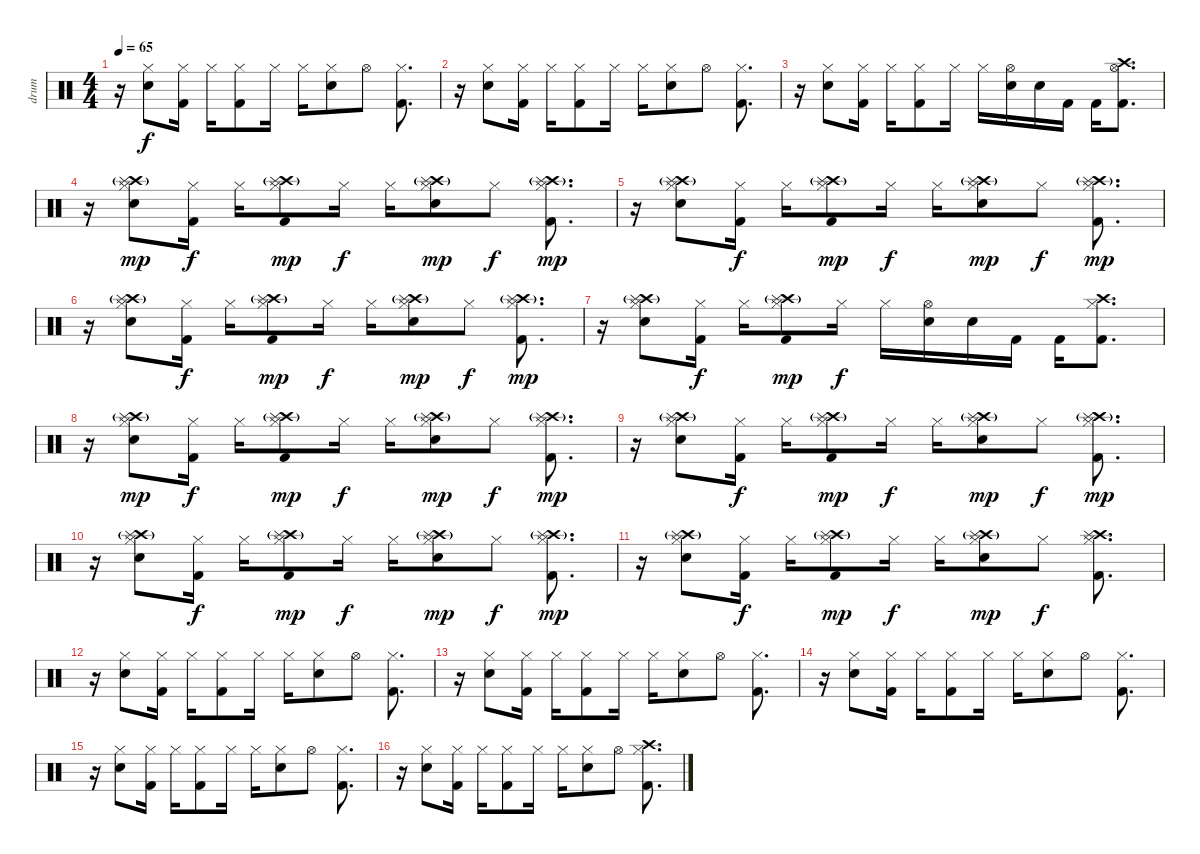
\track ("drum" "drum") {instrument percussion}
\staff {score}
\articulation defaults
\ts (4 4)
\tempo 65
\clef neutral
\ks c
r.16{dy f} ("Hi-Hat (closed)" "Electric Snare (hit)").8 ("Hi-Hat (closed)" "Kick (hit) 2").16 "Hi-Hat (closed)".16 ("Hi-Hat (closed)" "Kick (hit) 2").8 "Hi-Hat (closed)".16 "Hi-Hat (closed)".16 ("Hi-Hat (closed)" "Electric Snare (hit)").8 "Hi-Hat (open)".8 ("Hi-Hat (closed)" "Kick (hit) 2").8{d} |
r.16 ("Hi-Hat (closed)" "Electric Snare (hit)").8 ("Hi-Hat (closed)" "Kick (hit) 2").16 "Hi-Hat (closed)".16 ("Hi-Hat (closed)" "Kick (hit) 2").8 "Hi-Hat (closed)".16 "Hi-Hat (closed)".16 ("Hi-Hat (closed)" "Electric Snare (hit)").8 "Hi-Hat (open)".8 ("Hi-Hat (closed)" "Kick (hit) 2").8{d} |
r.16 ("Hi-Hat (closed)" "Electric Snare (hit)").8 ("Hi-Hat (closed)" "Kick (hit) 2").16 "Hi-Hat (closed)".16 ("Hi-Hat (closed)" "Kick (hit) 2").8 "Hi-Hat (closed)".16 "Hi-Hat (closed)".16 ("Hi-Hat (open)" "Electric Snare (hit)").16 "Electric Snare (hit)".16 "Kick (hit) 2".16 "Kick (hit) 2".16 ("Crash high (hit)" "Hi-Hat (open)" "Kick (hit) 2").8{d} |
r.16 ("Crash high (hit)"{g} "Hi-Hat (closed)" "Splash (hit)" "Electric Snare (hit)").8{dy mp} ("Hi-Hat (closed)" "Kick (hit) 2").16{dy f} "Hi-Hat (closed)".16 ("Crash high (hit)"{g} "Hi-Hat (closed)" "Splash (hit)" "Kick (hit) 2").8{dy mp} "Hi-Hat (closed)".16{dy f} "Hi-Hat (closed)".16 ("Crash high (hit)"{g} "Hi-Hat (closed)" "Splash (hit)" "Electric Snare (hit)").8{dy mp} "Hi-Hat (closed)".8{dy f} ("Crash high (hit)"{g} "Hi-Hat (closed)" "Splash (hit)" "Kick (hit) 2").8{d dy mp} |
r.16 ("Crash high (hit)"{g} "Hi-Hat (closed)" "Splash (hit)" "Electric Snare (hit)").8 ("Hi-Hat (closed)" "Kick (hit) 2").16{dy f} "Hi-Hat (closed)".16 ("Crash high (hit)"{g} "Hi-Hat (closed)" "Splash (hit)" "Kick (hit) 2").8{dy mp} "Hi-Hat (closed)".16{dy f} "Hi-Hat (closed)".16 ("Crash high (hit)"{g} "Hi-Hat (closed)" "Splash (hit)" "Electric Snare (hit)").8{dy mp} "Hi-Hat (closed)".8{dy f} ("Crash high (hit)"{g} "Hi-Hat (closed)" "Splash (hit)" "Kick (hit) 2").8{d dy mp} |
r.16 ("Crash high (hit)"{g} "Hi-Hat (closed)" "Splash (hit)" "Electric Snare (hit)").8 ("Hi-Hat (closed)" "Kick (hit) 2").16{dy f} "Hi-Hat (closed)".16 ("Crash high (hit)"{g} "Hi-Hat (closed)" "Splash (hit)" "Kick (hit) 2").8{dy mp} "Hi-Hat (closed)".16{dy f} "Hi-Hat (closed)".16 ("Crash high (hit)"{g} "Hi-Hat (closed)" "Splash (hit)" "Electric Snare (hit)").8{dy mp} "Hi-Hat (closed)".8{dy f} ("Crash high (hit)"{g} "Hi-Hat (closed)" "Splash (hit)" "Kick (hit) 2").8{d dy mp} |
r.16 ("Crash high (hit)"{g} "Hi-Hat (closed)" "Splash (hit)" "Electric Snare (hit)").8 ("Hi-Hat (closed)" "Kick (hit) 2").16{dy f} "Hi-Hat (closed)".16 ("Crash high (hit)"{g} "Hi-Hat (closed)" "Splash (hit)" "Kick (hit) 2").8{dy mp} "Hi-Hat (closed)".16{dy f} "Hi-Hat (closed)".16 ("Hi-Hat (open)" "Electric Snare (hit)").16 "Electric Snare (hit)".16 "Kick (hit) 2".16 "Kick (hit) 2".16 ("Crash high (hit)" "Hi-Hat (closed)" "Kick (hit) 2").8{d} |
r.16 ("Crash high (hit)"{g} "Hi-Hat (closed)" "Splash (hit)" "Electric Snare (hit)").8{dy mp} ("Hi-Hat (closed)" "Kick (hit) 2").16{dy f} "Hi-Hat (closed)".16 ("Crash high (hit)"{g} "Hi-Hat (closed)" "Splash (hit)" "Kick (hit) 2").8{dy mp} "Hi-Hat (closed)".16{dy f} "Hi-Hat (closed)".16 ("Crash high (hit)"{g} "Hi-Hat (closed)" "Splash (hit)" "Electric Snare (hit)").8{dy mp} "Hi-Hat (closed)".8{dy f} ("Crash high (hit)"{g} "Hi-Hat (closed)" "Splash (hit)" "Kick (hit) 2").8{d dy mp} |
r.16 ("Crash high (hit)"{g} "Hi-Hat (closed)" "Splash (hit)" "Electric Snare (hit)").8 ("Hi-Hat (closed)" "Kick (hit) 2").16{dy f} "Hi-Hat (closed)".16 ("Crash high (hit)"{g} "Hi-Hat (closed)" "Splash (hit)" "Kick (hit) 2").8{dy mp} "Hi-Hat (closed)".16{dy f} "Hi-Hat (closed)".16 ("Crash high (hit)"{g} "Hi-Hat (closed)" "Splash (hit)" "Electric Snare (hit)").8{dy mp} "Hi-Hat (closed)".8{dy f} ("Crash high (hit)"{g} "Hi-Hat (closed)" "Splash (hit)" "Kick (hit) 2").8{d dy mp} |
r.16 ("Crash high (hit)"{g} "Hi-Hat (closed)" "Splash (hit)" "Electric Snare (hit)").8 ("Hi-Hat (closed)" "Kick (hit) 2").16{dy f} "Hi-Hat (closed)".16 ("Crash high (hit)"{g} "Hi-Hat (closed)" "Splash (hit)" "Kick (hit) 2").8{dy mp} "Hi-Hat (closed)".16{dy f} "Hi-Hat (closed)".16 ("Crash high (hit)"{g} "Hi-Hat (closed)" "Splash (hit)" "Electric Snare (hit)").8{dy mp} "Hi-Hat (closed)".8{dy f} ("Crash high (hit)"{g} "Hi-Hat (closed)" "Splash (hit)" "Kick (hit) 2").8{d dy mp} |
r.16 ("Crash high (hit)"{g} "Hi-Hat (closed)" "Splash (hit)" "Electric Snare (hit)").8 ("Hi-Hat (closed)" "Kick (hit) 2").16{dy f} "Hi-Hat (closed)".16 ("Crash high (hit)"{g} "Hi-Hat (closed)" "Splash (hit)" "Kick (hit) 2").8{dy mp} "Hi-Hat (closed)".16{dy f} "Hi-Hat (closed)".16 ("Crash high (hit)"{g} "Hi-Hat (closed)" "Splash (hit)" "Electric Snare (hit)").8{dy mp} "Hi-Hat (closed)".8{dy f} ("Crash high (hit)" "Hi-Hat (closed)" "Splash (hit)" "Kick (hit) 2").8{d} |
r.16 ("Hi-Hat (closed)" "Electric Snare (hit)").8 ("Hi-Hat (closed)" "Kick (hit) 2").16 "Hi-Hat (closed)".16 ("Hi-Hat (closed)" "Kick (hit) 2").8 "Hi-Hat (closed)".16 "Hi-Hat (closed)".16 ("Hi-Hat (closed)" "Electric Snare (hit)").8 "Hi-Hat (open)".8 ("Hi-Hat (closed)" "Kick (hit) 2").8{d} |
r.16 ("Hi-Hat (closed)" "Electric Snare (hit)").8 ("Hi-Hat (closed)" "Kick (hit) 2").16 "Hi-Hat (closed)".16 ("Hi-Hat (closed)" "Kick (hit) 2").8 "Hi-Hat (closed)".16 "Hi-Hat (closed)".16 ("Hi-Hat (closed)" "Electric Snare (hit)").8 "Hi-Hat (open)".8 ("Hi-Hat (closed)" "Kick (hit) 2").8{d} |
r.16 ("Hi-Hat (closed)" "Electric Snare (hit)").8 ("Hi-Hat (closed)" "Kick (hit) 2").16 "Hi-Hat (closed)".16 ("Hi-Hat (closed)" "Kick (hit) 2").8 "Hi-Hat (closed)".16 "Hi-Hat (closed)".16 ("Hi-Hat (closed)" "Electric Snare (hit)").8 "Hi-Hat (open)".8 ("Hi-Hat (closed)" "Kick (hit) 2").8{d} |
r.16 ("Hi-Hat (closed)" "Electric Snare (hit)").8 ("Hi-Hat (closed)" "Kick (hit) 2").16 "Hi-Hat (closed)".16 ("Hi-Hat (closed)" "Kick (hit) 2").8 "Hi-Hat (closed)".16 "Hi-Hat (closed)".16 ("Hi-Hat (closed)" "Electric Snare (hit)").8 "Hi-Hat (open)".8 ("Hi-Hat (closed)" "Kick (hit) 2").8{d} |
r.16 ("Hi-Hat (closed)" "Electric Snare (hit)").8 ("Hi-Hat (closed)" "Kick (hit) 2").16 "Hi-Hat (closed)".16 ("Hi-Hat (closed)" "Kick (hit) 2").8 "Hi-Hat (closed)".16 "Hi-Hat (closed)".16 ("Hi-Hat (closed)" "Electric Snare (hit)").8 "Hi-Hat (open)".8 ("Crash high (hit)" "Hi-Hat (closed)" "Kick (hit) 2").8{d}
